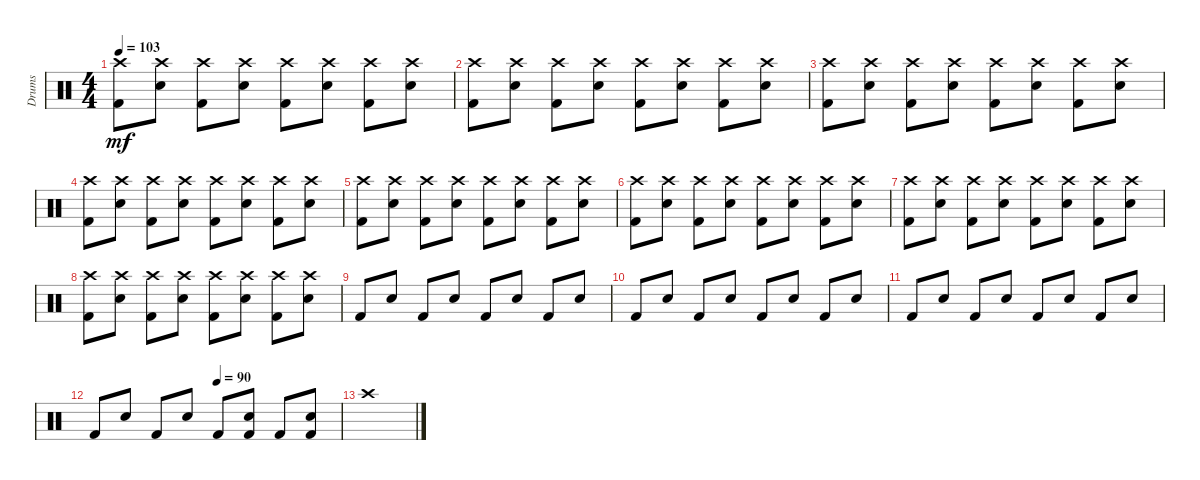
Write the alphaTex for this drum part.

\track ("Drums" "Drums") {instrument percussion}
\staff {score}
\articulation defaults
\ts (4 4)
\tempo 103
\clef neutral
\ks c
("Crash high (hit)" "Kick (hit) 2").8{dy mf} ("Crash high (hit)" "Snare (hit) 2").8 ("Crash high (hit)" "Kick (hit) 2").8 ("Crash high (hit)" "Snare (hit) 2").8 ("Crash high (hit)" "Kick (hit) 2").8 ("Crash high (hit)" "Snare (hit) 2").8 ("Crash high (hit)" "Kick (hit) 2").8 ("Crash high (hit)" "Snare (hit) 2").8 |
("Crash high (hit)" "Kick (hit) 2").8 ("Crash high (hit)" "Snare (hit) 2").8 ("Crash high (hit)" "Kick (hit) 2").8 ("Crash high (hit)" "Snare (hit) 2").8 ("Crash high (hit)" "Kick (hit) 2").8 ("Crash high (hit)" "Snare (hit) 2").8 ("Crash high (hit)" "Kick (hit) 2").8 ("Crash high (hit)" "Snare (hit) 2").8 |
("Crash high (hit)" "Kick (hit) 2").8 ("Crash high (hit)" "Snare (hit) 2").8 ("Crash high (hit)" "Kick (hit) 2").8 ("Crash high (hit)" "Snare (hit) 2").8 ("Crash high (hit)" "Kick (hit) 2").8 ("Crash high (hit)" "Snare (hit) 2").8 ("Crash high (hit)" "Kick (hit) 2").8 ("Crash high (hit)" "Snare (hit) 2").8 |
("Crash high (hit)" "Kick (hit) 2").8 ("Crash high (hit)" "Snare (hit) 2").8 ("Crash high (hit)" "Kick (hit) 2").8 ("Crash high (hit)" "Snare (hit) 2").8 ("Crash high (hit)" "Kick (hit) 2").8 ("Crash high (hit)" "Snare (hit) 2").8 ("Crash high (hit)" "Kick (hit) 2").8 ("Crash high (hit)" "Snare (hit) 2").8 |
("Crash high (hit)" "Kick (hit) 2").8 ("Crash high (hit)" "Snare (hit) 2").8 ("Crash high (hit)" "Kick (hit) 2").8 ("Crash high (hit)" "Snare (hit) 2").8 ("Crash high (hit)" "Kick (hit) 2").8 ("Crash high (hit)" "Snare (hit) 2").8 ("Crash high (hit)" "Kick (hit) 2").8 ("Crash high (hit)" "Snare (hit) 2").8 |
("Crash high (hit)" "Kick (hit) 2").8 ("Crash high (hit)" "Snare (hit) 2").8 ("Crash high (hit)" "Kick (hit) 2").8 ("Crash high (hit)" "Snare (hit) 2").8 ("Crash high (hit)" "Kick (hit) 2").8 ("Crash high (hit)" "Snare (hit) 2").8 ("Crash high (hit)" "Kick (hit) 2").8 ("Crash high (hit)" "Snare (hit) 2").8 |
("Crash high (hit)" "Kick (hit) 2").8 ("Crash high (hit)" "Snare (hit) 2").8 ("Crash high (hit)" "Kick (hit) 2").8 ("Crash high (hit)" "Snare (hit) 2").8 ("Crash high (hit)" "Kick (hit) 2").8 ("Crash high (hit)" "Snare (hit) 2").8 ("Crash high (hit)" "Kick (hit) 2").8 ("Crash high (hit)" "Snare (hit) 2").8 |
("Crash high (hit)" "Kick (hit) 2").8 ("Crash high (hit)" "Snare (hit) 2").8 ("Crash high (hit)" "Kick (hit) 2").8 ("Crash high (hit)" "Snare (hit) 2").8 ("Crash high (hit)" "Kick (hit) 2").8 ("Crash high (hit)" "Snare (hit) 2").8 ("Crash high (hit)" "Kick (hit) 2").8 ("Crash high (hit)" "Snare (hit) 2").8 |
"Kick (hit) 2".8 "Snare (hit) 2".8 "Kick (hit) 2".8 "Snare (hit) 2".8 "Kick (hit) 2".8 "Snare (hit) 2".8 "Kick (hit) 2".8 "Snare (hit) 2".8 |
"Kick (hit) 2".8 "Snare (hit) 2".8 "Kick (hit) 2".8 "Snare (hit) 2".8 "Kick (hit) 2".8 "Snare (hit) 2".8 "Kick (hit) 2".8 "Snare (hit) 2".8 |
"Kick (hit) 2".8 "Snare (hit) 2".8 "Kick (hit) 2".8 "Snare (hit) 2".8 "Kick (hit) 2".8 "Snare (hit) 2".8 "Kick (hit) 2".8 "Snare (hit) 2".8 |
\tempo (90 0.5)
"Kick (hit) 2".8 "Snare (hit) 2".8 "Kick (hit) 2".8 "Snare (hit) 2".8 "Kick (hit) 2".8 ("Snare (hit) 2" "Kick (hit) 2").8 "Kick (hit) 2".8 ("Snare (hit) 2" "Kick (hit) 2").8 |
"Crash high (hit)".1
